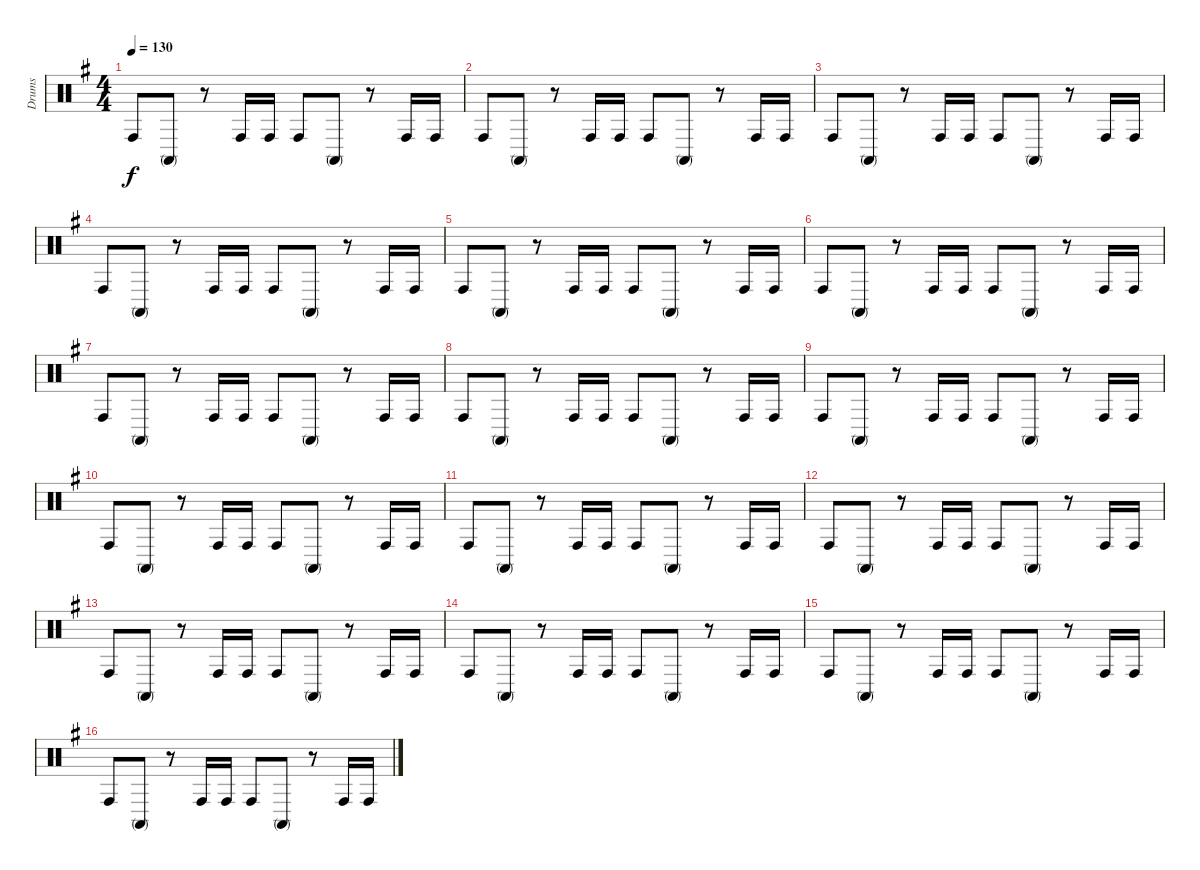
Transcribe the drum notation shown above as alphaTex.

\track ("Drums" "Drums") {instrument percussion}
\staff {score}
\articulation defaults
\ts (4 4)
\tempo 130
\clef neutral
\ks g "Conga high (hit)".8{dy f} "Conga high (mute)".8
r.8 "Conga high (hit)".16 "Conga high (hit)".16 "Conga high (hit)".8 "Conga high (mute)".8 r.8 "Conga high (hit)".16 "Conga high (hit)".16 |
"Conga high (hit)".8 "Conga high (mute)".8 r.8 "Conga high (hit)".16 "Conga high (hit)".16 "Conga high (hit)".8 "Conga high (mute)".8 r.8 "Conga high (hit)".16 "Conga high (hit)".16 |
"Conga high (hit)".8 "Conga high (mute)".8 r.8 "Conga high (hit)".16 "Conga high (hit)".16 "Conga high (hit)".8 "Conga high (mute)".8 r.8 "Conga high (hit)".16 "Conga high (hit)".16 |
"Conga high (hit)".8 "Conga high (mute)".8 r.8 "Conga high (hit)".16 "Conga high (hit)".16 "Conga high (hit)".8 "Conga high (mute)".8 r.8 "Conga high (hit)".16 "Conga high (hit)".16 |
"Conga high (hit)".8 "Conga high (mute)".8 r.8 "Conga high (hit)".16 "Conga high (hit)".16 "Conga high (hit)".8 "Conga high (mute)".8 r.8 "Conga high (hit)".16 "Conga high (hit)".16 |
"Conga high (hit)".8 "Conga high (mute)".8 r.8 "Conga high (hit)".16 "Conga high (hit)".16 "Conga high (hit)".8 "Conga high (mute)".8 r.8 "Conga high (hit)".16 "Conga high (hit)".16 |
"Conga high (hit)".8 "Conga high (mute)".8 r.8 "Conga high (hit)".16 "Conga high (hit)".16 "Conga high (hit)".8 "Conga high (mute)".8 r.8 "Conga high (hit)".16 "Conga high (hit)".16 |
"Conga high (hit)".8 "Conga high (mute)".8 r.8 "Conga high (hit)".16 "Conga high (hit)".16 "Conga high (hit)".8 "Conga high (mute)".8 r.8 "Conga high (hit)".16 "Conga high (hit)".16 |
"Conga high (hit)".8 "Conga high (mute)".8 r.8 "Conga high (hit)".16 "Conga high (hit)".16 "Conga high (hit)".8 "Conga high (mute)".8 r.8 "Conga high (hit)".16 "Conga high (hit)".16 |
"Conga high (hit)".8 "Conga high (mute)".8 r.8 "Conga high (hit)".16 "Conga high (hit)".16 "Conga high (hit)".8 "Conga high (mute)".8 r.8 "Conga high (hit)".16 "Conga high (hit)".16 |
"Conga high (hit)".8 "Conga high (mute)".8 r.8 "Conga high (hit)".16 "Conga high (hit)".16 "Conga high (hit)".8 "Conga high (mute)".8 r.8 "Conga high (hit)".16 "Conga high (hit)".16 |
"Conga high (hit)".8 "Conga high (mute)".8 r.8 "Conga high (hit)".16 "Conga high (hit)".16 "Conga high (hit)".8 "Conga high (mute)".8 r.8 "Conga high (hit)".16 "Conga high (hit)".16 |
"Conga high (hit)".8 "Conga high (mute)".8 r.8 "Conga high (hit)".16 "Conga high (hit)".16 "Conga high (hit)".8 "Conga high (mute)".8 r.8 "Conga high (hit)".16 "Conga high (hit)".16 |
"Conga high (hit)".8 "Conga high (mute)".8 r.8 "Conga high (hit)".16 "Conga high (hit)".16 "Conga high (hit)".8 "Conga high (mute)".8 r.8 "Conga high (hit)".16 "Conga high (hit)".16 |
"Conga high (hit)".8 "Conga high (mute)".8 r.8 "Conga high (hit)".16 "Conga high (hit)".16 "Conga high (hit)".8 "Conga high (mute)".8 r.8 "Conga high (hit)".16 "Conga high (hit)".16 |
"Conga high (hit)".8 "Conga high (mute)".8 r.8 "Conga high (hit)".16 "Conga high (hit)".16 "Conga high (hit)".8 "Conga high (mute)".8 r.8 "Conga high (hit)".16 "Conga high (hit)".16
